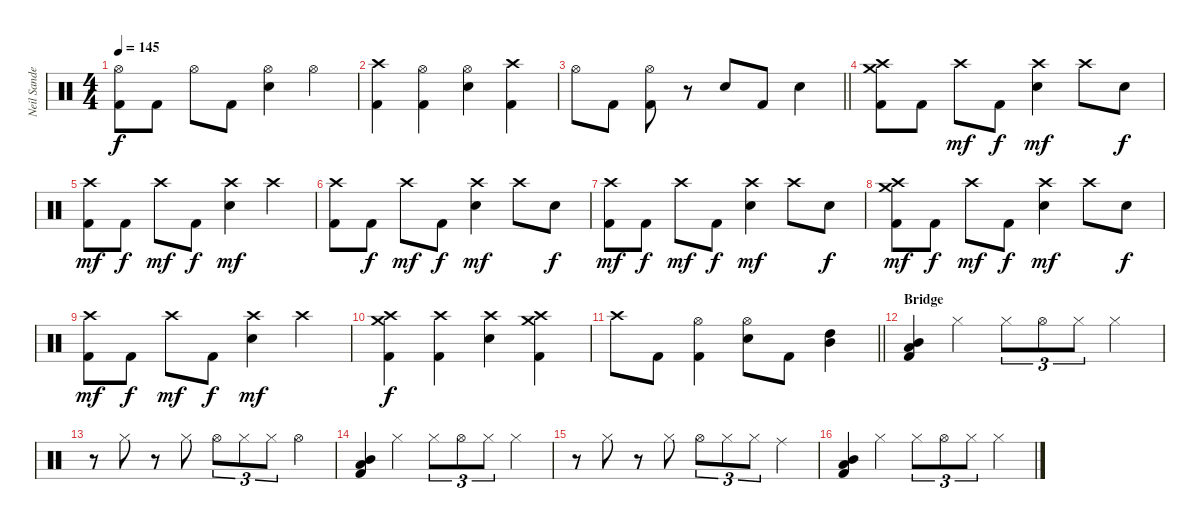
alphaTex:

\track ("Neil Sanderson" "Neil Sande") {instrument percussion}
\staff {score}
\articulation defaults
\ts (4 4)
\tempo 145
\clef neutral
\ks c
("Hi-Hat (open)" "Kick (hit) 2").8{dy f} "Kick (hit) 2".8 "Hi-Hat (open)".8 "Kick (hit) 2".8 ("Hi-Hat (open)" "Electric Snare (hit)").4 "Hi-Hat (open)".4 |
("Crash high (hit)" "Kick (hit) 2").4 ("Hi-Hat (open)" "Kick (hit) 2").4 ("Hi-Hat (open)" "Electric Snare (hit)").4 ("Crash high (hit)" "Kick (hit) 2").4 |
\barLineRight lightlight "Hi-Hat (open)".8 "Kick (hit) 2".8
("Hi-Hat (open)" "Kick (hit) 2").8 r.8 "Electric Snare (hit)".8 "Kick (hit) 2".8 "Electric Snare (hit)".4 |
("Crash high (hit)" "Crash medium (hit)" "Kick (hit) 2").8 "Kick (hit) 2".8 "Crash high (hit)".8{dy mf} "Kick (hit) 2".8{dy f} ("Crash high (hit)" "Electric Snare (hit)").4{dy mf} "Crash high (hit)".8 "Electric Snare (hit)".8{dy f} |
("Crash high (hit)" "Kick (hit) 2").8{dy mf} "Kick (hit) 2".8{dy f} "Crash high (hit)".8{dy mf} "Kick (hit) 2".8{dy f} ("Crash high (hit)" "Electric Snare (hit)").4{dy mf} "Crash high (hit)".4 |
("Crash high (hit)" "Kick (hit) 2").8 "Kick (hit) 2".8{dy f} "Crash high (hit)".8{dy mf} "Kick (hit) 2".8{dy f} ("Crash high (hit)" "Electric Snare (hit)").4{dy mf} "Crash high (hit)".8 "Electric Snare (hit)".8{dy f} |
("Crash high (hit)" "Kick (hit) 2").8{dy mf} "Kick (hit) 2".8{dy f} "Crash high (hit)".8{dy mf} "Kick (hit) 2".8{dy f} ("Crash high (hit)" "Electric Snare (hit)").4{dy mf} "Crash high (hit)".8 "Electric Snare (hit)".8{dy f} |
("Crash high (hit)" "Crash medium (hit)" "Kick (hit) 2").8{dy mf} "Kick (hit) 2".8{dy f} "Crash high (hit)".8{dy mf} "Kick (hit) 2".8{dy f} ("Crash high (hit)" "Electric Snare (hit)").4{dy mf} "Crash high (hit)".8 "Electric Snare (hit)".8{dy f} |
("Crash high (hit)" "Kick (hit) 2").8{dy mf} "Kick (hit) 2".8{dy f} "Crash high (hit)".8{dy mf} "Kick (hit) 2".8{dy f} ("Crash high (hit)" "Electric Snare (hit)").4{dy mf} "Crash high (hit)".4 |
("Crash high (hit)" "Crash medium (hit)" "Kick (hit) 2").4{dy f} ("Crash high (hit)" "Kick (hit) 2").4 ("Crash high (hit)" "Electric Snare (hit)").4 ("Crash high (hit)" "Crash medium (hit)" "Kick (hit) 2").4 |
\barLineRight lightlight "Crash high (hit)".8 "Kick (hit) 2".8
("Hi-Hat (open)" "Kick (hit) 2").4 ("Hi-Hat (open)" "Electric Snare (hit)").8 "Kick (hit) 2".8 ("High Tom (hit)" "Mid Tom (hit)").4 |
\section ("" "Bridge")
("Mid Tom (hit)" "Low Tom (hit)" "Kick (hit) 2").4 "Hi-Hat (closed)".4 "Hi-Hat (closed)".8{tu (3 2)} "Hi-Hat (open)".8{tu (3 2)} "Hi-Hat (closed)".8{tu (3 2)} "Hi-Hat (closed)".4 |
r.8 "Hi-Hat (closed)".8 r.8 "Hi-Hat (closed)".8 "Hi-Hat (open)".8{tu (3 2)} "Hi-Hat (closed)".8{tu (3 2)} "Hi-Hat (closed)".8{tu (3 2)} "Hi-Hat (open)".4 |
("Mid Tom (hit)" "Low Tom (hit)" "Kick (hit) 2").4 "Hi-Hat (closed)".4 "Hi-Hat (closed)".8{tu (3 2)} "Hi-Hat (open)".8{tu (3 2)} "Hi-Hat (closed)".8{tu (3 2)} "Hi-Hat (closed)".4 |
r.8 "Hi-Hat (closed)".8 r.8 "Hi-Hat (closed)".8 "Hi-Hat (open)".8{tu (3 2)} "Hi-Hat (closed)".8{tu (3 2)} "Hi-Hat (closed)".8{tu (3 2)} "Ride (middle)".4 |
("Mid Tom (hit)" "Low Tom (hit)" "Kick (hit) 2").4 "Hi-Hat (closed)".4 "Hi-Hat (closed)".8{tu (3 2)} "Hi-Hat (open)".8{tu (3 2)} "Hi-Hat (closed)".8{tu (3 2)} "Hi-Hat (closed)".4
